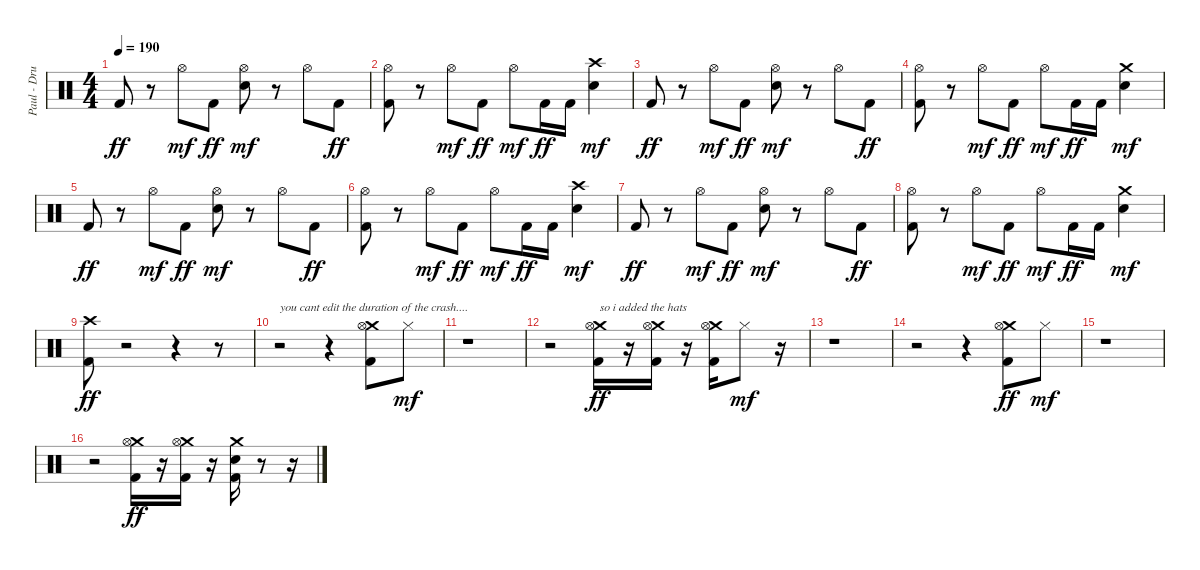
\track ("Paul - Drums" "Paul - Dru") {instrument percussion}
\staff {score}
\articulation defaults
\ts (4 4)
\tempo 190
\clef neutral
\ks c "Kick (hit) 2".8{dy ff}
r.8 "Hi-Hat (open)".8{dy mf} "Kick (hit) 2".8{dy ff} ("Hi-Hat (open)" "Electric Snare (hit)").8{dy mf} r.8 "Hi-Hat (open)".8 "Kick (hit) 2".8{dy ff} |
("Hi-Hat (open)" "Kick (hit) 2").8 r.8 "Hi-Hat (open)".8{dy mf} "Kick (hit) 2".8{dy ff} "Hi-Hat (open)".8{dy mf} "Kick (hit) 2".16{dy ff} "Kick (hit) 2".16 ("Crash high (hit)" "Electric Snare (hit)").4{dy mf} |
"Kick (hit) 2".8{dy ff} r.8 "Hi-Hat (open)".8{dy mf} "Kick (hit) 2".8{dy ff} ("Hi-Hat (open)" "Electric Snare (hit)").8{dy mf} r.8 "Hi-Hat (open)".8 "Kick (hit) 2".8{dy ff} |
("Hi-Hat (open)" "Kick (hit) 2").8 r.8 "Hi-Hat (open)".8{dy mf} "Kick (hit) 2".8{dy ff} "Hi-Hat (open)".8{dy mf} "Kick (hit) 2".16{dy ff} "Kick (hit) 2".16 ("Crash medium (hit)" "Electric Snare (hit)").4{dy mf} |
"Kick (hit) 2".8{dy ff} r.8 "Hi-Hat (open)".8{dy mf} "Kick (hit) 2".8{dy ff} ("Hi-Hat (open)" "Electric Snare (hit)").8{dy mf} r.8 "Hi-Hat (open)".8 "Kick (hit) 2".8{dy ff} |
("Hi-Hat (open)" "Kick (hit) 2").8 r.8 "Hi-Hat (open)".8{dy mf} "Kick (hit) 2".8{dy ff} "Hi-Hat (open)".8{dy mf} "Kick (hit) 2".16{dy ff} "Kick (hit) 2".16 ("Crash high (hit)" "Electric Snare (hit)").4{dy mf} |
"Kick (hit) 2".8{dy ff} r.8 "Hi-Hat (open)".8{dy mf} "Kick (hit) 2".8{dy ff} ("Hi-Hat (open)" "Electric Snare (hit)").8{dy mf} r.8 "Hi-Hat (open)".8 "Kick (hit) 2".8{dy ff} |
("Hi-Hat (open)" "Kick (hit) 2").8 r.8 "Hi-Hat (open)".8{dy mf} "Kick (hit) 2".8{dy ff} "Hi-Hat (open)".8{dy mf} "Kick (hit) 2".16{dy ff} "Kick (hit) 2".16 ("Crash medium (hit)" "Electric Snare (hit)").4{dy mf} |
("Crash high (hit)" "Kick (hit) 2").8{dy ff} r.2 r.4 r.8 |
r.2{txt "you cant edit the duration of the crash...."} r.4 ("Crash medium (hit)" "Hi-Hat (open)" "Kick (hit) 2").8 "Hi-Hat (closed)".8{dy mf} |
r.1 |
r.2 ("Crash medium (hit)" "Hi-Hat (open)" "Kick (hit) 2").16{txt "so i added the hats" dy ff} r.16 ("Crash medium (hit)" "Hi-Hat (open)" "Kick (hit) 2").16 r.16 ("Crash medium (hit)" "Hi-Hat (open)" "Kick (hit) 2").16 "Hi-Hat (closed)".8{dy mf} r.16 |
r.1 |
r.2 r.4 ("Crash medium (hit)" "Hi-Hat (open)" "Kick (hit) 2").8{dy ff} "Hi-Hat (closed)".8{dy mf} |
r.1 |
r.2 ("Crash medium (hit)" "Hi-Hat (open)" "Kick (hit) 2").16{dy ff} r.16 ("Crash medium (hit)" "Hi-Hat (open)" "Kick (hit) 2").16 r.16 ("Crash medium (hit)" "Electric Snare (hit)" "Kick (hit) 2").16 r.8 r.16
